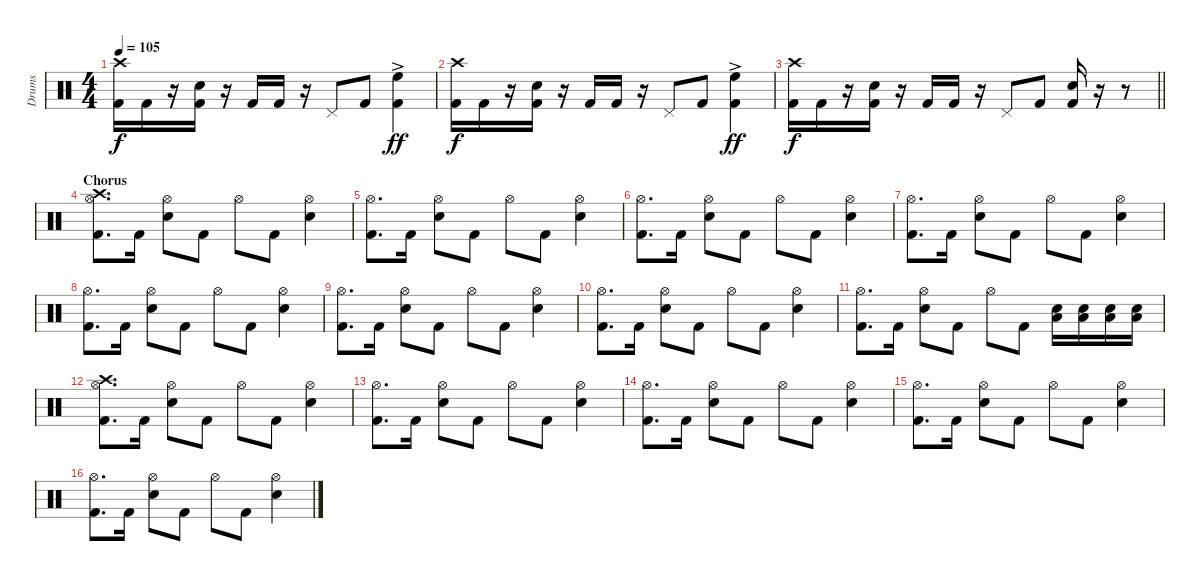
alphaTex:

\track ("Drums" "Drums") {instrument percussion}
\staff {score}
\articulation defaults
\ts (4 4)
\tempo 105
\clef neutral
\ks aminor
("Crash high (hit)" "Kick (hit) 2").16{dy f} "Kick (hit) 2".16 r.16 ("Snare (hit) 2" "Kick (hit) 2").16 r.16 "Kick (hit) 2".16 "Kick (hit) 2".16 r.16 "Pedal Hi-Hat (hit)".8 "Kick (hit) 2".8 ("High Floor Tom (hit)"{ac} "Kick (hit) 2").4{dy ff} |
("Crash high (hit)" "Kick (hit) 2").16{dy f} "Kick (hit) 2".16 r.16 ("Snare (hit) 2" "Kick (hit) 2").16 r.16 "Kick (hit) 2".16 "Kick (hit) 2".16 r.16 "Pedal Hi-Hat (hit)".8 "Kick (hit) 2".8 ("High Floor Tom (hit)"{ac} "Kick (hit) 2").4{dy ff} |
\barLineRight lightlight
("Crash high (hit)" "Kick (hit) 2").16{dy f} "Kick (hit) 2".16 r.16 ("Snare (hit) 2" "Kick (hit) 2").16 r.16 "Kick (hit) 2".16 "Kick (hit) 2".16 r.16 "Pedal Hi-Hat (hit)".8 "Kick (hit) 2".8 ("Snare (hit) 2" "Kick (hit) 2").16 r.16 r.8 |
\section ("" "Chorus")
("Crash high (hit)" "Hi-Hat (open)" "Kick (hit) 2").8{d volume 10} "Kick (hit) 2".16 ("Snare (hit) 2" "Hi-Hat (open)").8 "Kick (hit) 2".8 "Hi-Hat (open)".8 "Kick (hit) 2".8 ("Snare (hit) 2" "Hi-Hat (open)").4 |
("Hi-Hat (open)" "Kick (hit) 2").8{d} "Kick (hit) 2".16 ("Snare (hit) 2" "Hi-Hat (open)").8 "Kick (hit) 2".8 "Hi-Hat (open)".8 "Kick (hit) 2".8 ("Snare (hit) 2" "Hi-Hat (open)").4 |
("Hi-Hat (open)" "Kick (hit) 2").8{d} "Kick (hit) 2".16 ("Snare (hit) 2" "Hi-Hat (open)").8 "Kick (hit) 2".8 "Hi-Hat (open)".8 "Kick (hit) 2".8 ("Snare (hit) 2" "Hi-Hat (open)").4 |
("Hi-Hat (open)" "Kick (hit) 2").8{d} "Kick (hit) 2".16 ("Snare (hit) 2" "Hi-Hat (open)").8 "Kick (hit) 2".8 "Hi-Hat (open)".8 "Kick (hit) 2".8 ("Snare (hit) 2" "Hi-Hat (open)").4 |
("Hi-Hat (open)" "Kick (hit) 2").8{d} "Kick (hit) 2".16 ("Snare (hit) 2" "Hi-Hat (open)").8 "Kick (hit) 2".8 "Hi-Hat (open)".8 "Kick (hit) 2".8 ("Snare (hit) 2" "Hi-Hat (open)").4 |
("Hi-Hat (open)" "Kick (hit) 2").8{d} "Kick (hit) 2".16 ("Snare (hit) 2" "Hi-Hat (open)").8 "Kick (hit) 2".8 "Hi-Hat (open)".8 "Kick (hit) 2".8 ("Snare (hit) 2" "Hi-Hat (open)").4 |
("Hi-Hat (open)" "Kick (hit) 2").8{d} "Kick (hit) 2".16 ("Snare (hit) 2" "Hi-Hat (open)").8 "Kick (hit) 2".8 "Hi-Hat (open)".8 "Kick (hit) 2".8 ("Snare (hit) 2" "Hi-Hat (open)").4 |
("Hi-Hat (open)" "Kick (hit) 2").8{d} "Kick (hit) 2".16 ("Snare (hit) 2" "Hi-Hat (open)").8 "Kick (hit) 2".8 "Hi-Hat (open)".8 "Kick (hit) 2".8 ("Snare (hit) 2" "Low Floor Tom (hit)").16 ("Snare (hit) 2" "Low Floor Tom (hit)").16 ("Snare (hit) 2" "Low Floor Tom (hit)").16 ("Snare (hit) 2" "Low Floor Tom (hit)").16 |
("Crash high (hit)" "Hi-Hat (open)" "Kick (hit) 2").8{d} "Kick (hit) 2".16 ("Snare (hit) 2" "Hi-Hat (open)").8 "Kick (hit) 2".8 "Hi-Hat (open)".8 "Kick (hit) 2".8 ("Snare (hit) 2" "Hi-Hat (open)").4 |
("Hi-Hat (open)" "Kick (hit) 2").8{d} "Kick (hit) 2".16 ("Snare (hit) 2" "Hi-Hat (open)").8 "Kick (hit) 2".8 "Hi-Hat (open)".8 "Kick (hit) 2".8 ("Snare (hit) 2" "Hi-Hat (open)").4 |
("Hi-Hat (open)" "Kick (hit) 2").8{d} "Kick (hit) 2".16 ("Snare (hit) 2" "Hi-Hat (open)").8 "Kick (hit) 2".8 "Hi-Hat (open)".8 "Kick (hit) 2".8 ("Snare (hit) 2" "Hi-Hat (open)").4 |
("Hi-Hat (open)" "Kick (hit) 2").8{d} "Kick (hit) 2".16 ("Snare (hit) 2" "Hi-Hat (open)").8 "Kick (hit) 2".8 "Hi-Hat (open)".8 "Kick (hit) 2".8 ("Snare (hit) 2" "Hi-Hat (open)").4 |
("Hi-Hat (open)" "Kick (hit) 2").8{d} "Kick (hit) 2".16 ("Snare (hit) 2" "Hi-Hat (open)").8 "Kick (hit) 2".8 "Hi-Hat (open)".8 "Kick (hit) 2".8 ("Snare (hit) 2" "Hi-Hat (open)").4
